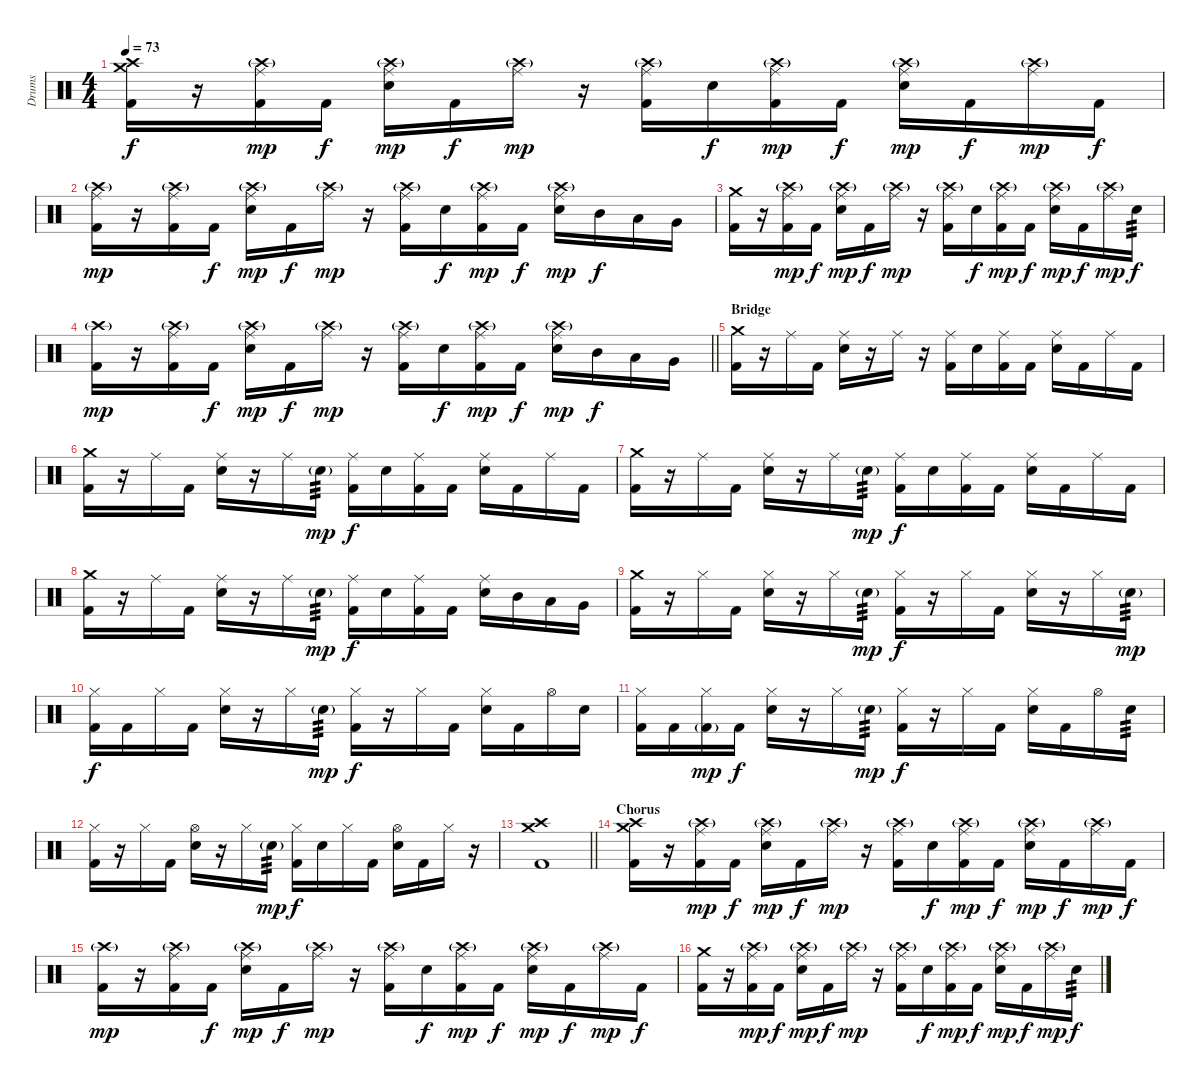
\track ("Drums" "Drums") {instrument percussion}
\staff {score}
\articulation defaults
\ts (4 4)
\tempo 73
\clef neutral
\ks c
("Crash medium (hit)" "Crash high (hit)" "Kick (hit) 2").16{dy f} r.16 ("Crash high (hit)"{g} "Ride (middle)" "Kick (hit) 2").16{dy mp} "Kick (hit) 2".16{dy f} ("Crash high (hit)"{g} "Ride (middle)" "Electric Snare (hit)").16{dy mp} "Kick (hit) 2".16{dy f} ("Crash high (hit)"{g} "Ride (middle)").16{dy mp} r.16 ("Crash high (hit)"{g} "Ride (middle)" "Kick (hit) 2").16 "Electric Snare (hit)".16{dy f} ("Crash high (hit)"{g} "Ride (middle)" "Kick (hit) 2").16{dy mp} "Kick (hit) 2".16{dy f} ("Crash high (hit)"{g} "Ride (middle)" "Electric Snare (hit)").16{dy mp} "Kick (hit) 2".16{dy f} ("Crash high (hit)"{g} "Ride (middle)").16{dy mp} "Kick (hit) 2".16{dy f} |
("Crash high (hit)"{g} "Ride (middle)" "Kick (hit) 2").16{dy mp} r.16 ("Crash high (hit)"{g} "Ride (middle)" "Kick (hit) 2").16 "Kick (hit) 2".16{dy f} ("Crash high (hit)"{g} "Ride (middle)" "Electric Snare (hit)").16{dy mp} "Kick (hit) 2".16{dy f} ("Crash high (hit)"{g} "Ride (middle)").16{dy mp} r.16 ("Crash high (hit)"{g} "Ride (middle)" "Kick (hit) 2").16 "Electric Snare (hit)".16{dy f} ("Crash high (hit)"{g} "Ride (middle)" "Kick (hit) 2").16{dy mp} "Kick (hit) 2".16{dy f} ("Crash high (hit)"{g} "Ride (middle)" "Electric Snare (hit)").16{dy mp} "Mid Tom (hit)".16{dy f} "Low Tom (hit)".16 "Very Low Tom (hit)".16 |
("Crash medium (hit)" "Kick (hit) 2").16 r.16 ("Crash high (hit)"{g} "Ride (middle)" "Kick (hit) 2").16{dy mp} "Kick (hit) 2".16{dy f} ("Crash high (hit)"{g} "Ride (middle)" "Electric Snare (hit)").16{dy mp} "Kick (hit) 2".16{dy f} ("Crash high (hit)"{g} "Ride (middle)").16{dy mp} r.16 ("Crash high (hit)"{g} "Ride (middle)" "Kick (hit) 2").16 "Electric Snare (hit)".16{dy f} ("Crash high (hit)"{g} "Ride (middle)" "Kick (hit) 2").16{dy mp} "Kick (hit) 2".16{dy f} ("Crash high (hit)"{g} "Ride (middle)" "Electric Snare (hit)").16{dy mp} "Kick (hit) 2".16{dy f} ("Crash high (hit)"{g} "Ride (middle)").16{dy mp} "Electric Snare (hit)".16{tp 3 dy f} |
\barLineRight lightlight
("Crash high (hit)"{g} "Kick (hit) 2").16{dy mp} r.16 ("Crash high (hit)"{g} "Ride (middle)" "Kick (hit) 2").16 "Kick (hit) 2".16{dy f} ("Crash high (hit)"{g} "Ride (middle)" "Electric Snare (hit)").16{dy mp} "Kick (hit) 2".16{dy f} ("Crash high (hit)"{g} "Ride (middle)").16{dy mp} r.16 ("Crash high (hit)"{g} "Ride (middle)" "Kick (hit) 2").16 "Electric Snare (hit)".16{dy f} ("Crash high (hit)"{g} "Ride (middle)" "Kick (hit) 2").16{dy mp} "Kick (hit) 2".16{dy f} ("Crash high (hit)"{g} "Ride (middle)" "Electric Snare (hit)").16{dy mp} "Mid Tom (hit)".16{dy f} "Low Tom (hit)".16 "Very Low Tom (hit)".16 |
\section ("" "Bridge")
("Crash medium (hit)" "Kick (hit) 2").16 r.16 "Ride (middle)".16 "Kick (hit) 2".16 ("Ride (middle)" "Electric Snare (hit)").16 r.16 "Ride (middle)".16 r.16 ("Ride (middle)" "Kick (hit) 2").16 "Electric Snare (hit)".16 ("Ride (middle)" "Kick (hit) 2").16 "Kick (hit) 2".16 ("Ride (middle)" "Electric Snare (hit)").16 "Kick (hit) 2".16 "Ride (middle)".16 "Kick (hit) 2".16 |
("Crash medium (hit)" "Kick (hit) 2").16 r.16 "Ride (middle)".16 "Kick (hit) 2".16 ("Ride (middle)" "Electric Snare (hit)").16 r.16 "Ride (middle)".16 "Electric Snare (hit)"{g}.16{tp 3 dy mp} ("Ride (middle)" "Kick (hit) 2").16{dy f} "Electric Snare (hit)".16 ("Ride (middle)" "Kick (hit) 2").16 "Kick (hit) 2".16 ("Ride (middle)" "Electric Snare (hit)").16 "Kick (hit) 2".16 "Ride (middle)".16 "Kick (hit) 2".16 |
("Crash medium (hit)" "Kick (hit) 2").16 r.16 "Ride (middle)".16 "Kick (hit) 2".16 ("Ride (middle)" "Electric Snare (hit)").16 r.16 "Ride (middle)".16 "Electric Snare (hit)"{g}.16{tp 3 dy mp} ("Ride (middle)" "Kick (hit) 2").16{dy f} "Electric Snare (hit)".16 ("Ride (middle)" "Kick (hit) 2").16 "Kick (hit) 2".16 ("Ride (middle)" "Electric Snare (hit)").16 "Kick (hit) 2".16 "Ride (middle)".16 "Kick (hit) 2".16 |
("Crash medium (hit)" "Kick (hit) 2").16 r.16 "Ride (middle)".16 "Kick (hit) 2".16 ("Ride (middle)" "Electric Snare (hit)").16 r.16 "Ride (middle)".16 "Electric Snare (hit)"{g}.16{tp 3 dy mp} ("Ride (middle)" "Kick (hit) 2").16{dy f} "Electric Snare (hit)".16 ("Ride (middle)" "Kick (hit) 2").16 "Kick (hit) 2".16 ("Ride (middle)" "Electric Snare (hit)").16 "Mid Tom (hit)".16 "Low Tom (hit)".16 "Very Low Tom (hit)".16 |
("Crash medium (hit)" "Kick (hit) 2").16 r.16 "Hi-Hat (closed)".16 "Kick (hit) 2".16 ("Hi-Hat (closed)" "Electric Snare (hit)").16 r.16 "Hi-Hat (closed)".16 "Electric Snare (hit)"{g}.16{tp 3 dy mp} ("Hi-Hat (closed)" "Kick (hit) 2").16{dy f} r.16 "Hi-Hat (closed)".16 "Kick (hit) 2".16 ("Hi-Hat (closed)" "Electric Snare (hit)").16 r.16 "Hi-Hat (closed)".16 "Electric Snare (hit)"{g}.16{tp 3 dy mp} |
("Hi-Hat (closed)" "Kick (hit) 2").16{dy f} "Kick (hit) 2".16 "Hi-Hat (closed)".16 "Kick (hit) 2".16 ("Hi-Hat (closed)" "Electric Snare (hit)").16 r.16 "Hi-Hat (closed)".16 "Electric Snare (hit)"{g}.16{tp 3 dy mp} ("Hi-Hat (closed)" "Kick (hit) 2").16{dy f} r.16 "Hi-Hat (closed)".16 "Kick (hit) 2".16 ("Hi-Hat (closed)" "Electric Snare (hit)").16 "Kick (hit) 2".16 "Hi-Hat (open)".16 "Electric Snare (hit)".16 |
("Hi-Hat (closed)" "Kick (hit) 2").16 "Kick (hit) 2".16 ("Hi-Hat (closed)" "Kick (hit) 2"{g}).16{dy mp} "Kick (hit) 2".16{dy f} ("Hi-Hat (closed)" "Electric Snare (hit)").16 r.16 "Hi-Hat (closed)".16 "Electric Snare (hit)"{g}.16{tp 3 dy mp} ("Hi-Hat (closed)" "Kick (hit) 2").16{dy f} r.16 "Hi-Hat (closed)".16 "Kick (hit) 2".16 ("Hi-Hat (closed)" "Electric Snare (hit)").16 "Kick (hit) 2".16 "Hi-Hat (open)".16 "Electric Snare (hit)".16{tp 3} |
("Hi-Hat (closed)" "Kick (hit) 2").16 r.16 "Hi-Hat (closed)".16 "Kick (hit) 2".16 ("Hi-Hat (open)" "Electric Snare (hit)").16 r.16 "Hi-Hat (closed)".16 "Electric Snare (hit)"{g}.16{tp 3 dy mp} ("Hi-Hat (closed)" "Kick (hit) 2").16{dy f} "Electric Snare (hit)".16 "Hi-Hat (closed)".16 "Kick (hit) 2".16 ("Hi-Hat (open)" "Electric Snare (hit)").16 "Kick (hit) 2".16 "Hi-Hat (closed)".16 r.16 |
\barLineRight lightlight
("Crash medium (hit)" "Crash high (hit)" "Kick (hit) 2").1 |
\section ("" "Chorus")
("Crash medium (hit)" "Crash high (hit)" "Kick (hit) 2").16 r.16 ("Crash high (hit)"{g} "Ride (middle)" "Kick (hit) 2").16{dy mp} "Kick (hit) 2".16{dy f} ("Crash high (hit)"{g} "Ride (middle)" "Electric Snare (hit)").16{dy mp} "Kick (hit) 2".16{dy f} ("Crash high (hit)"{g} "Ride (middle)").16{dy mp} r.16 ("Crash high (hit)"{g} "Ride (middle)" "Kick (hit) 2").16 "Electric Snare (hit)".16{dy f} ("Crash high (hit)"{g} "Ride (middle)" "Kick (hit) 2").16{dy mp} "Kick (hit) 2".16{dy f} ("Crash high (hit)"{g} "Ride (middle)" "Electric Snare (hit)").16{dy mp} "Kick (hit) 2".16{dy f} ("Crash high (hit)"{g} "Ride (middle)").16{dy mp} "Kick (hit) 2".16{dy f} |
("Crash high (hit)"{g} "Kick (hit) 2").16{dy mp} r.16 ("Crash high (hit)"{g} "Ride (middle)" "Kick (hit) 2").16 "Kick (hit) 2".16{dy f} ("Crash high (hit)"{g} "Ride (middle)" "Electric Snare (hit)").16{dy mp} "Kick (hit) 2".16{dy f} ("Crash high (hit)"{g} "Ride (middle)").16{dy mp} r.16 ("Crash high (hit)"{g} "Ride (middle)" "Kick (hit) 2").16 "Electric Snare (hit)".16{dy f} ("Crash high (hit)"{g} "Ride (middle)" "Kick (hit) 2").16{dy mp} "Kick (hit) 2".16{dy f} ("Crash high (hit)"{g} "Ride (middle)" "Electric Snare (hit)").16{dy mp} "Kick (hit) 2".16{dy f} ("Crash high (hit)"{g} "Ride (middle)").16{dy mp} "Kick (hit) 2".16{dy f} |
("Crash medium (hit)" "Kick (hit) 2").16 r.16 ("Crash high (hit)"{g} "Ride (middle)" "Kick (hit) 2").16{dy mp} "Kick (hit) 2".16{dy f} ("Crash high (hit)"{g} "Ride (middle)" "Electric Snare (hit)").16{dy mp} "Kick (hit) 2".16{dy f} ("Crash high (hit)"{g} "Ride (middle)").16{dy mp} r.16 ("Crash high (hit)"{g} "Ride (middle)" "Kick (hit) 2").16 "Electric Snare (hit)".16{dy f} ("Crash high (hit)"{g} "Ride (middle)" "Kick (hit) 2").16{dy mp} "Kick (hit) 2".16{dy f} ("Crash high (hit)"{g} "Ride (middle)" "Electric Snare (hit)").16{dy mp} "Kick (hit) 2".16{dy f} ("Crash high (hit)"{g} "Ride (middle)").16{dy mp} "Electric Snare (hit)".16{tp 3 dy f}
